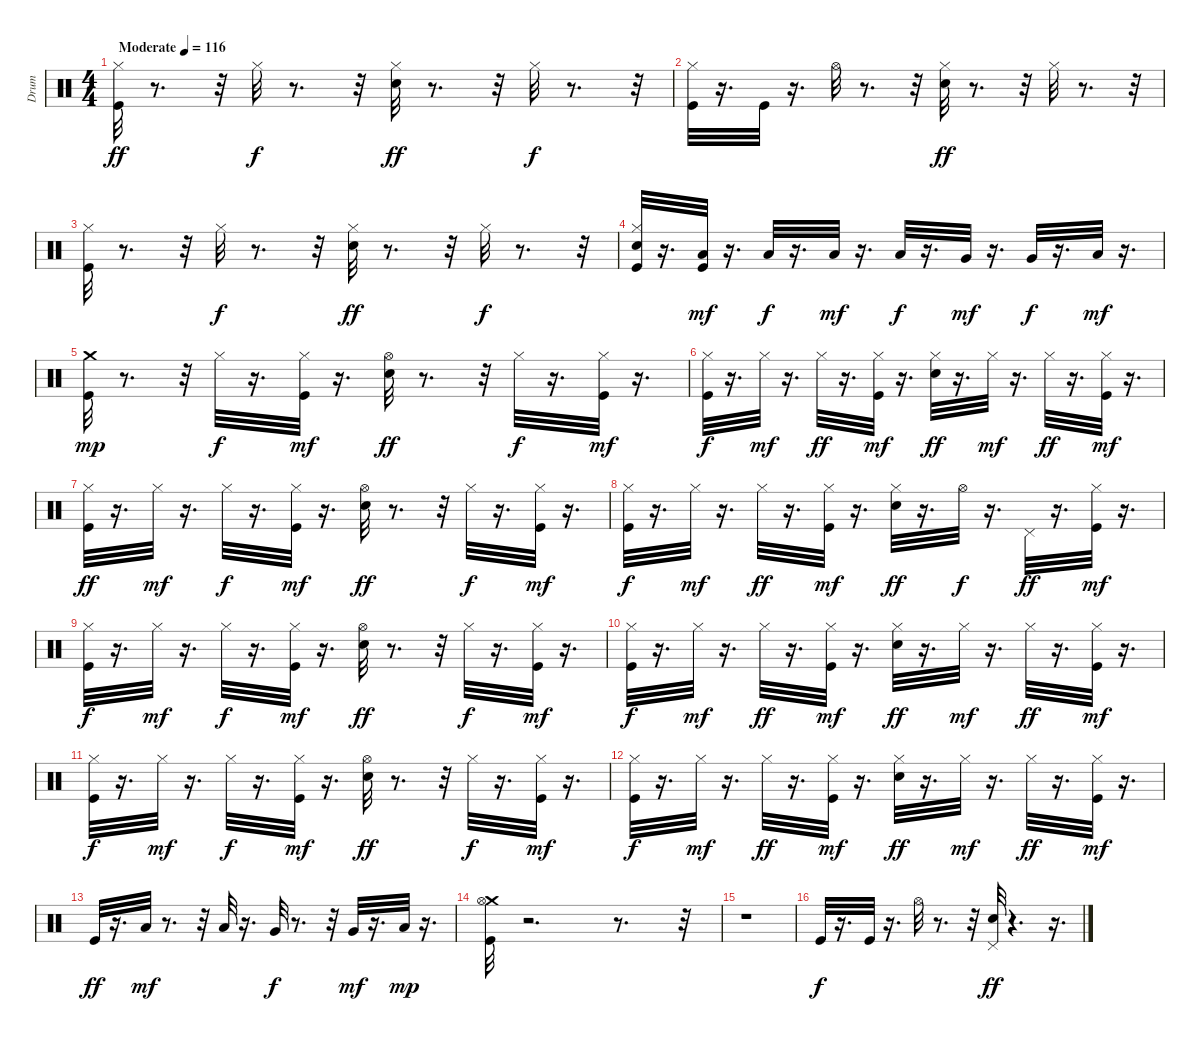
\track ("Drum    " "Drum    ") {instrument percussion}
\staff {score}
\articulation defaults
\ts (4 4)
\tempo (116 "Moderate")
\clef neutral
\ks c
("Kick (hit)" "Hi-Hat (closed)").32{dy ff} r.8{d} r.32 "Hi-Hat (closed)".32{dy f} r.8{d} r.32 ("Electric Snare (hit)" "Hi-Hat (closed)").32{dy ff} r.8{d} r.32 "Hi-Hat (closed)".32{dy f} r.8{d} r.32 |
("Kick (hit)" "Hi-Hat (closed)").32 r.16{d} "Kick (hit)".32 r.16{d} "Hi-Hat (open)".32 r.8{d} r.32 ("Electric Snare (hit)" "Hi-Hat (closed)").32{dy ff} r.8{d} r.32 "Hi-Hat (closed)".32 r.8{d} r.32 |
("Kick (hit)" "Hi-Hat (closed)").32 r.8{d} r.32 "Hi-Hat (closed)".32{dy f} r.8{d} r.32 ("Electric Snare (hit)" "Hi-Hat (closed)").32{dy ff} r.8{d} r.32 "Hi-Hat (closed)".32{dy f} r.8{d} r.32 |
("Kick (hit)" "Electric Snare (hit)" "Hi-Hat (closed)").32 r.16{d} ("Kick (hit)" "Low Tom (hit)").32{dy mf} r.16{d} "Low Tom (hit)".32{dy f} r.16{d} "Low Tom (hit)".32{dy mf} r.16{d} "Low Tom (hit)".32{dy f} r.16{d} "Very Low Tom (hit)".32{dy mf} r.16{d} "Very Low Tom (hit)".32{dy f} r.16{d} "Low Floor Tom (hit)".32{dy mf} r.16{d} |
("Kick (hit)" "Crash medium (hit)").32{dy mp} r.8{d} r.32 "Hi-Hat (closed)".32{dy f} r.16{d} ("Kick (hit)" "Hi-Hat (closed)").32{dy mf} r.16{d} ("Hi-Hat (open)" "Electric Snare (hit)").32{dy ff} r.8{d} r.32 "Hi-Hat (closed)".32{dy f} r.16{d} ("Hi-Hat (closed)" "Kick (hit)").32{dy mf} r.16{d} |
("Kick (hit)" "Hi-Hat (closed)").32{dy f} r.16{d} "Hi-Hat (closed)".32{dy mf} r.16{d} "Hi-Hat (closed)".32{dy ff} r.16{d} ("Hi-Hat (closed)" "Kick (hit)").32{dy mf} r.16{d} ("Hi-Hat (closed)" "Electric Snare (hit)").32{dy ff} r.16{d} "Hi-Hat (closed)".32{dy mf} r.16{d} "Hi-Hat (closed)".32{dy ff} r.16{d} ("Hi-Hat (closed)" "Kick (hit)").32{dy mf} r.16{d} |
("Kick (hit)" "Hi-Hat (closed)").32{dy ff} r.16{d} "Hi-Hat (closed)".32{dy mf} r.16{d} "Hi-Hat (closed)".32{dy f} r.16{d} ("Kick (hit)" "Hi-Hat (closed)").32{dy mf} r.16{d} ("Electric Snare (hit)" "Hi-Hat (open)").32{dy ff} r.8{d} r.32 "Hi-Hat (closed)".32{dy f} r.16{d} ("Kick (hit)" "Hi-Hat (closed)").32{dy mf} r.16{d} |
("Hi-Hat (closed)" "Kick (hit)").32{dy f} r.16{d} "Hi-Hat (closed)".32{dy mf} r.16{d} "Hi-Hat (closed)".32{dy ff} r.16{d} ("Kick (hit)" "Hi-Hat (closed)").32{dy mf} r.16{d} ("Electric Snare (hit)" "Hi-Hat (closed)").32{dy ff} r.16{d} "Hi-Hat (open)".32{dy f} r.16{d} "Pedal Hi-Hat (hit)".32{dy ff} r.16{d} ("Hi-Hat (closed)" "Kick (hit)").32{dy mf} r.16{d} |
("Kick (hit)" "Hi-Hat (closed)").32{dy f} r.16{d} "Hi-Hat (closed)".32{dy mf} r.16{d} "Hi-Hat (closed)".32{dy f} r.16{d} ("Kick (hit)" "Hi-Hat (closed)").32{dy mf} r.16{d} ("Electric Snare (hit)" "Hi-Hat (open)").32{dy ff} r.8{d} r.32 "Hi-Hat (closed)".32{dy f} r.16{d} ("Hi-Hat (closed)" "Kick (hit)").32{dy mf} r.16{d} |
("Kick (hit)" "Hi-Hat (closed)").32{dy f} r.16{d} "Hi-Hat (closed)".32{dy mf} r.16{d} "Hi-Hat (closed)".32{dy ff} r.16{d} ("Kick (hit)" "Hi-Hat (closed)").32{dy mf} r.16{d} ("Electric Snare (hit)" "Hi-Hat (closed)").32{dy ff} r.16{d} "Hi-Hat (closed)".32{dy mf} r.16{d} "Hi-Hat (closed)".32{dy ff} r.16{d} ("Hi-Hat (closed)" "Kick (hit)").32{dy mf} r.16{d} |
("Kick (hit)" "Hi-Hat (closed)").32{dy f} r.16{d} "Hi-Hat (closed)".32{dy mf} r.16{d} "Hi-Hat (closed)".32{dy f} r.16{d} ("Kick (hit)" "Hi-Hat (closed)").32{dy mf} r.16{d} ("Electric Snare (hit)" "Hi-Hat (open)").32{dy ff} r.8{d} r.32 "Hi-Hat (closed)".32{dy f} r.16{d} ("Kick (hit)" "Hi-Hat (closed)").32{dy mf} r.16{d} |
("Hi-Hat (closed)" "Kick (hit)").32{dy f} r.16{d} "Hi-Hat (closed)".32{dy mf} r.16{d} "Hi-Hat (closed)".32{dy ff} r.16{d} ("Kick (hit)" "Hi-Hat (closed)").32{dy mf} r.16{d} ("Hi-Hat (closed)" "Electric Snare (hit)").32{dy ff} r.16{d} "Hi-Hat (closed)".32{dy mf} r.16{d} "Hi-Hat (closed)".32{dy ff} r.16{d} ("Kick (hit)" "Hi-Hat (closed)").32{dy mf} r.16{d} |
"Kick (hit)".32{dy ff} r.16{d} "Low Tom (hit)".32{dy mf} r.8{d} r.32 "Low Tom (hit)".32 r.16{d} "Very Low Tom (hit)".32{dy f} r.8{d} r.32 "Very Low Tom (hit)".32{dy mf} r.16{d} "Low Floor Tom (hit)".32{dy mp} r.16{d} |
("Crash medium (hit)" "Hi-Hat (open)" "Kick (hit)").32 r.2{d} r.8{d} r.32 |
r.1 |
"Kick (hit)".32{dy f} r.16{d} "Kick (hit)".32 r.16{d} "Hi-Hat (open)".32 r.8{d} r.32 ("Electric Snare (hit)" "Pedal Hi-Hat (hit)").32{dy ff} r.4{d} r.16{d}
